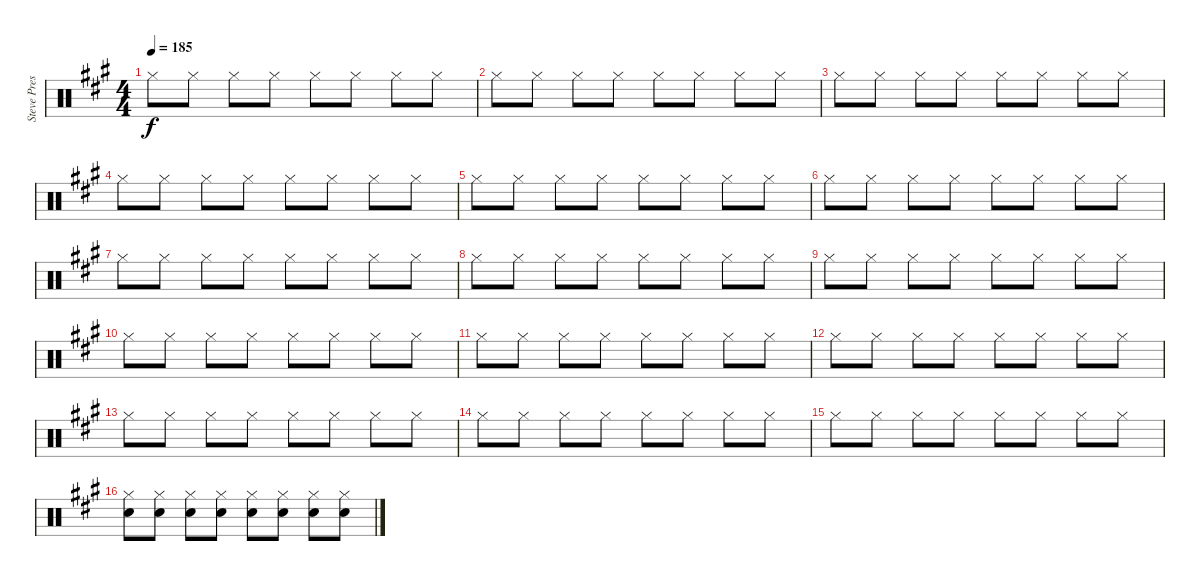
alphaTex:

\track ("Steve Preswhich" "Steve Pres") {instrument percussion}
\staff {score}
\articulation defaults
\ts (4 4)
\tempo 185
\clef neutral
\ks a "Hi-Hat (closed)".8{dy f} "Hi-Hat (closed)".8 "Hi-Hat (closed)".8 "Hi-Hat (closed)".8 "Hi-Hat (closed)".8 "Hi-Hat (closed)".8 "Hi-Hat (closed)".8 "Hi-Hat (closed)".8
|
"Hi-Hat (closed)".8 "Hi-Hat (closed)".8 "Hi-Hat (closed)".8 "Hi-Hat (closed)".8 "Hi-Hat (closed)".8 "Hi-Hat (closed)".8 "Hi-Hat (closed)".8 "Hi-Hat (closed)".8 |
"Hi-Hat (closed)".8 "Hi-Hat (closed)".8 "Hi-Hat (closed)".8 "Hi-Hat (closed)".8 "Hi-Hat (closed)".8 "Hi-Hat (closed)".8 "Hi-Hat (closed)".8 "Hi-Hat (closed)".8 |
"Hi-Hat (closed)".8 "Hi-Hat (closed)".8 "Hi-Hat (closed)".8 "Hi-Hat (closed)".8 "Hi-Hat (closed)".8 "Hi-Hat (closed)".8 "Hi-Hat (closed)".8 "Hi-Hat (closed)".8 |
"Hi-Hat (closed)".8 "Hi-Hat (closed)".8 "Hi-Hat (closed)".8 "Hi-Hat (closed)".8 "Hi-Hat (closed)".8 "Hi-Hat (closed)".8 "Hi-Hat (closed)".8 "Hi-Hat (closed)".8 |
"Hi-Hat (closed)".8 "Hi-Hat (closed)".8 "Hi-Hat (closed)".8 "Hi-Hat (closed)".8 "Hi-Hat (closed)".8 "Hi-Hat (closed)".8 "Hi-Hat (closed)".8 "Hi-Hat (closed)".8 |
"Hi-Hat (closed)".8 "Hi-Hat (closed)".8 "Hi-Hat (closed)".8 "Hi-Hat (closed)".8 "Hi-Hat (closed)".8 "Hi-Hat (closed)".8 "Hi-Hat (closed)".8 "Hi-Hat (closed)".8 |
"Hi-Hat (closed)".8 "Hi-Hat (closed)".8 "Hi-Hat (closed)".8 "Hi-Hat (closed)".8 "Hi-Hat (closed)".8 "Hi-Hat (closed)".8 "Hi-Hat (closed)".8 "Hi-Hat (closed)".8 |
"Hi-Hat (closed)".8 "Hi-Hat (closed)".8 "Hi-Hat (closed)".8 "Hi-Hat (closed)".8 "Hi-Hat (closed)".8 "Hi-Hat (closed)".8 "Hi-Hat (closed)".8 "Hi-Hat (closed)".8 |
"Hi-Hat (closed)".8 "Hi-Hat (closed)".8 "Hi-Hat (closed)".8 "Hi-Hat (closed)".8 "Hi-Hat (closed)".8 "Hi-Hat (closed)".8 "Hi-Hat (closed)".8 "Hi-Hat (closed)".8 |
"Hi-Hat (closed)".8 "Hi-Hat (closed)".8 "Hi-Hat (closed)".8 "Hi-Hat (closed)".8 "Hi-Hat (closed)".8 "Hi-Hat (closed)".8 "Hi-Hat (closed)".8 "Hi-Hat (closed)".8 |
"Hi-Hat (closed)".8 "Hi-Hat (closed)".8 "Hi-Hat (closed)".8 "Hi-Hat (closed)".8 "Hi-Hat (closed)".8 "Hi-Hat (closed)".8 "Hi-Hat (closed)".8 "Hi-Hat (closed)".8 |
"Hi-Hat (closed)".8 "Hi-Hat (closed)".8 "Hi-Hat (closed)".8 "Hi-Hat (closed)".8 "Hi-Hat (closed)".8 "Hi-Hat (closed)".8 "Hi-Hat (closed)".8 "Hi-Hat (closed)".8 |
"Hi-Hat (closed)".8 "Hi-Hat (closed)".8 "Hi-Hat (closed)".8 "Hi-Hat (closed)".8 "Hi-Hat (closed)".8 "Hi-Hat (closed)".8 "Hi-Hat (closed)".8 "Hi-Hat (closed)".8 |
"Hi-Hat (closed)".8 "Hi-Hat (closed)".8 "Hi-Hat (closed)".8 "Hi-Hat (closed)".8 "Hi-Hat (closed)".8 "Hi-Hat (closed)".8 "Hi-Hat (closed)".8 "Hi-Hat (closed)".8 |
("Hi-Hat (closed)" "Electric Snare (hit)").8 ("Hi-Hat (closed)" "Electric Snare (hit)").8 ("Hi-Hat (closed)" "Electric Snare (hit)").8 ("Hi-Hat (closed)" "Electric Snare (hit)").8 ("Hi-Hat (closed)" "Electric Snare (hit)").8 ("Hi-Hat (closed)" "Electric Snare (hit)").8 ("Hi-Hat (closed)" "Electric Snare (hit)").8 ("Hi-Hat (closed)" "Electric Snare (hit)").8
